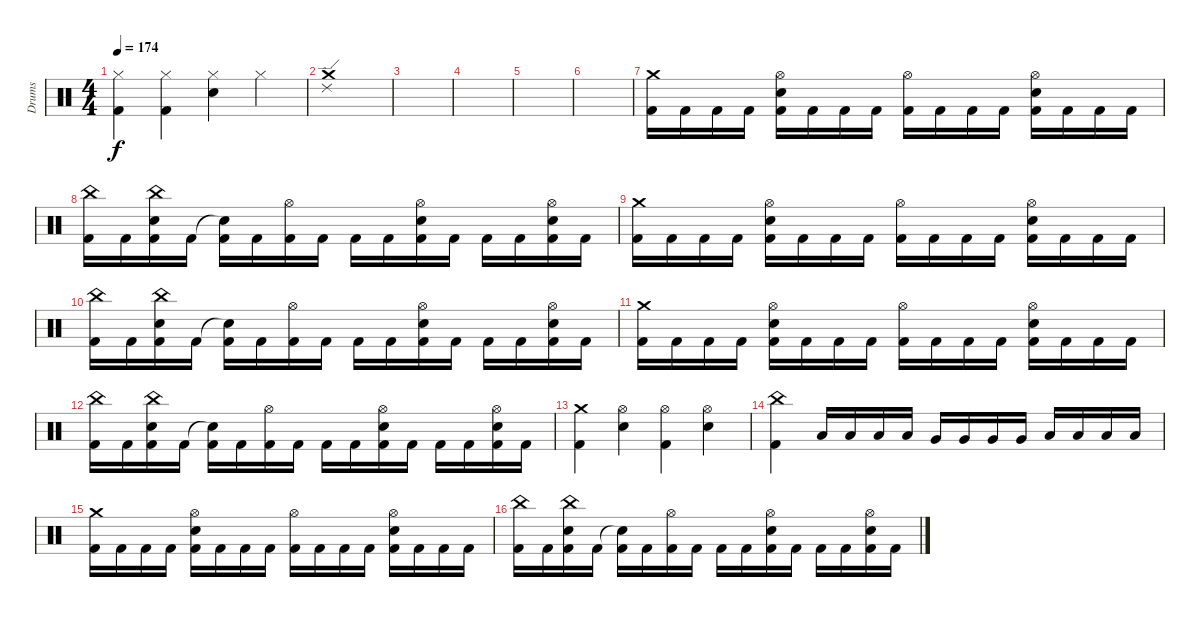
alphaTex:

\track ("Drums" "Drums") {instrument percussion}
\staff {score}
\articulation defaults
\ts (4 4)
\tempo 174
\clef neutral
\ks c
("Hi-Hat (closed)" "Kick (hit) 2").4{dy f} ("Hi-Hat (closed)" "Kick (hit) 2").4 ("Hi-Hat (closed)" "Electric Snare (hit)").4 "Hi-Hat (closed)".4 |
("Ride (edge) 2" "Crash medium (hit)").1 |
|
|
|
|
("Crash medium (hit)" "Kick (hit) 2").16 "Kick (hit) 2".16 "Kick (hit) 2".16 "Kick (hit) 2".16 ("Hi-Hat (open)" "Kick (hit) 2" "Electric Snare (hit)").16 "Kick (hit) 2".16 "Kick (hit) 2".16 "Kick (hit) 2".16 ("Hi-Hat (open)" "Kick (hit) 2").16 "Kick (hit) 2".16 "Kick (hit) 2".16 "Kick (hit) 2".16 ("Hi-Hat (open)" "Kick (hit) 2" "Electric Snare (hit)").16 "Kick (hit) 2".16 "Kick (hit) 2".16 "Kick (hit) 2".16 |
("China (hit)" "Kick (hit) 2").16 "Kick (hit) 2".16 ("China (hit)" "Kick (hit) 2" "Electric Snare (hit)").16 "Kick (hit) 2".16 ("Snare (hit)"{t} "Kick (hit) 2").16 "Kick (hit) 2".16 ("Hi-Hat (open)" "Kick (hit) 2").16 "Kick (hit) 2".16 "Kick (hit) 2".16 "Kick (hit) 2".16 ("Hi-Hat (open)" "Kick (hit) 2" "Electric Snare (hit)").16 "Kick (hit) 2".16 "Kick (hit) 2".16 "Kick (hit) 2".16 ("Hi-Hat (open)" "Kick (hit) 2" "Electric Snare (hit)").16 "Kick (hit) 2".16 |
("Crash medium (hit)" "Kick (hit) 2").16 "Kick (hit) 2".16 "Kick (hit) 2".16 "Kick (hit) 2".16 ("Hi-Hat (open)" "Kick (hit) 2" "Electric Snare (hit)").16 "Kick (hit) 2".16 "Kick (hit) 2".16 "Kick (hit) 2".16 ("Hi-Hat (open)" "Kick (hit) 2").16 "Kick (hit) 2".16 "Kick (hit) 2".16 "Kick (hit) 2".16 ("Hi-Hat (open)" "Kick (hit) 2" "Electric Snare (hit)").16 "Kick (hit) 2".16 "Kick (hit) 2".16 "Kick (hit) 2".16 |
("China (hit)" "Kick (hit) 2").16 "Kick (hit) 2".16 ("China (hit)" "Kick (hit) 2" "Electric Snare (hit)").16 "Kick (hit) 2".16 ("Snare (hit)"{t} "Kick (hit) 2").16 "Kick (hit) 2".16 ("Hi-Hat (open)" "Kick (hit) 2").16 "Kick (hit) 2".16 "Kick (hit) 2".16 "Kick (hit) 2".16 ("Hi-Hat (open)" "Kick (hit) 2" "Electric Snare (hit)").16 "Kick (hit) 2".16 "Kick (hit) 2".16 "Kick (hit) 2".16 ("Hi-Hat (open)" "Kick (hit) 2" "Electric Snare (hit)").16 "Kick (hit) 2".16 |
("Crash medium (hit)" "Kick (hit) 2").16 "Kick (hit) 2".16 "Kick (hit) 2".16 "Kick (hit) 2".16 ("Hi-Hat (open)" "Kick (hit) 2" "Electric Snare (hit)").16 "Kick (hit) 2".16 "Kick (hit) 2".16 "Kick (hit) 2".16 ("Hi-Hat (open)" "Kick (hit) 2").16 "Kick (hit) 2".16 "Kick (hit) 2".16 "Kick (hit) 2".16 ("Hi-Hat (open)" "Kick (hit) 2" "Electric Snare (hit)").16 "Kick (hit) 2".16 "Kick (hit) 2".16 "Kick (hit) 2".16 |
("China (hit)" "Kick (hit) 2").16 "Kick (hit) 2".16 ("China (hit)" "Kick (hit) 2" "Electric Snare (hit)").16 "Kick (hit) 2".16 ("Snare (hit)"{t} "Kick (hit) 2").16 "Kick (hit) 2".16 ("Hi-Hat (open)" "Kick (hit) 2").16 "Kick (hit) 2".16 "Kick (hit) 2".16 "Kick (hit) 2".16 ("Hi-Hat (open)" "Kick (hit) 2" "Electric Snare (hit)").16 "Kick (hit) 2".16 "Kick (hit) 2".16 "Kick (hit) 2".16 ("Hi-Hat (open)" "Kick (hit) 2" "Electric Snare (hit)").16 "Kick (hit) 2".16 |
("Crash medium (hit)" "Kick (hit) 2").4 ("Hi-Hat (open)" "Electric Snare (hit)").4 ("Hi-Hat (open)" "Kick (hit) 2").4 ("Hi-Hat (open)" "Electric Snare (hit)").4 |
("China (hit)" "Kick (hit) 2").4 "Low Tom (hit)".16 "Low Tom (hit)".16 "Low Tom (hit)".16 "Low Tom (hit)".16 "Very Low Tom (hit)".16 "Very Low Tom (hit)".16 "Very Low Tom (hit)".16 "Very Low Tom (hit)".16 "Low Floor Tom (hit)".16 "Low Floor Tom (hit)".16 "Low Floor Tom (hit)".16 "Low Floor Tom (hit)".16 |
("Crash medium (hit)" "Kick (hit) 2").16 "Kick (hit) 2".16 "Kick (hit) 2".16 "Kick (hit) 2".16 ("Hi-Hat (open)" "Kick (hit) 2" "Electric Snare (hit)").16 "Kick (hit) 2".16 "Kick (hit) 2".16 "Kick (hit) 2".16 ("Hi-Hat (open)" "Kick (hit) 2").16 "Kick (hit) 2".16 "Kick (hit) 2".16 "Kick (hit) 2".16 ("Hi-Hat (open)" "Kick (hit) 2" "Electric Snare (hit)").16 "Kick (hit) 2".16 "Kick (hit) 2".16 "Kick (hit) 2".16 |
("China (hit)" "Kick (hit) 2").16 "Kick (hit) 2".16 ("China (hit)" "Kick (hit) 2" "Electric Snare (hit)").16 "Kick (hit) 2".16 ("Snare (hit)"{t} "Kick (hit) 2").16 "Kick (hit) 2".16 ("Hi-Hat (open)" "Kick (hit) 2").16 "Kick (hit) 2".16 "Kick (hit) 2".16 "Kick (hit) 2".16 ("Hi-Hat (open)" "Kick (hit) 2" "Electric Snare (hit)").16 "Kick (hit) 2".16 "Kick (hit) 2".16 "Kick (hit) 2".16 ("Hi-Hat (open)" "Kick (hit) 2" "Electric Snare (hit)").16 "Kick (hit) 2".16
